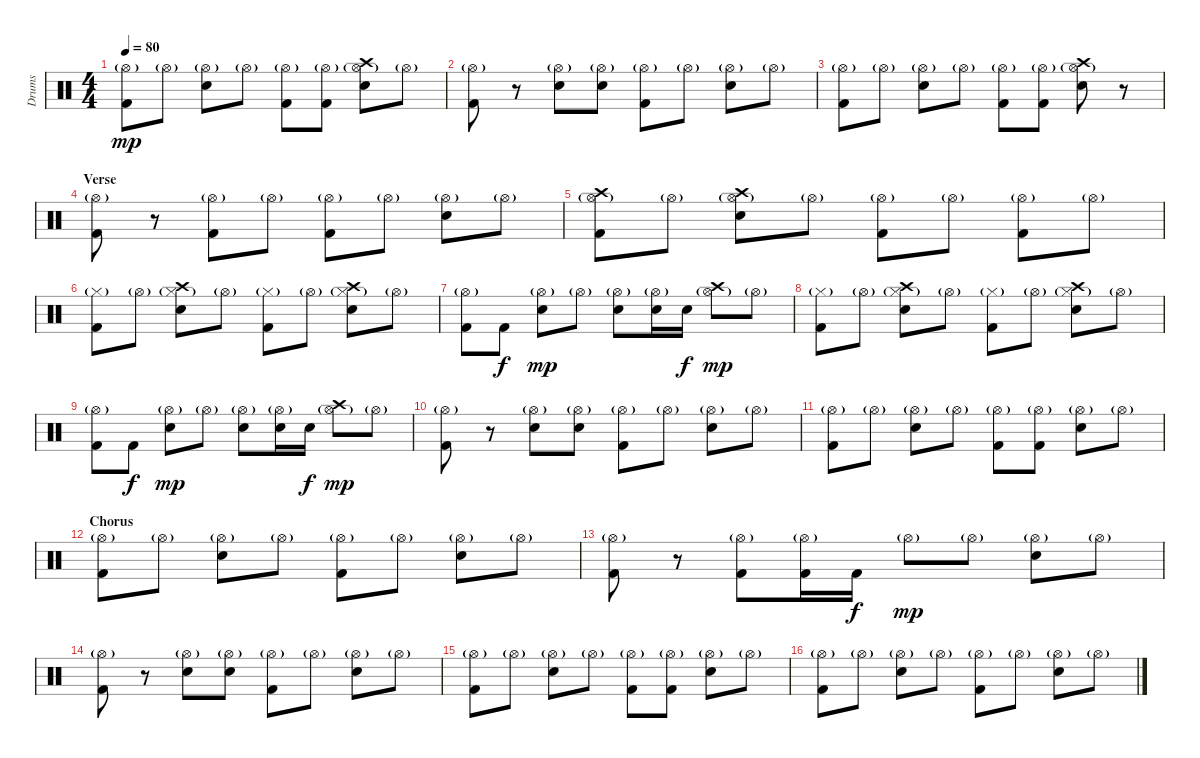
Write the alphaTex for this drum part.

\track ("Drums" "Drums") {instrument percussion}
\staff {score}
\articulation defaults
\ts (4 4)
\tempo 80
\clef neutral
\ks c
("Hi-Hat (open)"{g} "Kick (hit) 2").8{dy mp} "Hi-Hat (open)"{g}.8 ("Hi-Hat (open)"{g} "Snare (hit) 2").8 "Hi-Hat (open)"{g}.8 ("Hi-Hat (open)"{g} "Kick (hit) 2").8 ("Hi-Hat (open)"{g} "Kick (hit) 2").8 ("Hi-Hat (open)"{g} "Crash high (hit)" "Snare (hit) 2").8 "Hi-Hat (open)"{g}.8 |
("Hi-Hat (open)"{g} "Kick (hit) 2").8 r.8 ("Hi-Hat (open)"{g} "Snare (hit) 2").8 ("Hi-Hat (open)"{g} "Snare (hit) 2").8 ("Hi-Hat (open)"{g} "Kick (hit) 2").8 "Hi-Hat (open)"{g}.8 ("Hi-Hat (open)"{g} "Snare (hit) 2").8 "Hi-Hat (open)"{g}.8 |
("Hi-Hat (open)"{g} "Kick (hit) 2").8 "Hi-Hat (open)"{g}.8 ("Hi-Hat (open)"{g} "Snare (hit) 2").8 "Hi-Hat (open)"{g}.8 ("Hi-Hat (open)"{g} "Kick (hit) 2").8 ("Hi-Hat (open)"{g} "Kick (hit) 2").8 ("Hi-Hat (open)"{g} "Crash high (hit)" "Snare (hit) 2").8 r.8 |
\section ("" "Verse")
("Hi-Hat (open)"{g} "Kick (hit) 2").8 r.8 ("Hi-Hat (open)"{g} "Kick (hit) 2").8 "Hi-Hat (open)"{g}.8 ("Hi-Hat (open)"{g} "Kick (hit) 2").8 "Hi-Hat (open)"{g}.8 ("Hi-Hat (open)"{g} "Snare (hit) 2").8 "Hi-Hat (open)"{g}.8 |
("Hi-Hat (open)"{g} "Crash high (hit)" "Kick (hit) 2").8 "Hi-Hat (open)"{g}.8 ("Hi-Hat (open)"{g} "Crash high (hit)" "Snare (hit) 2").8 "Hi-Hat (open)"{g}.8 ("Hi-Hat (open)"{g} "Kick (hit) 2").8 "Hi-Hat (open)"{g}.8 ("Hi-Hat (open)"{g} "Kick (hit) 2").8 "Hi-Hat (open)"{g}.8 |
("Hi-Hat (closed)"{g} "Kick (hit) 2").8 "Hi-Hat (open)"{g}.8 ("Hi-Hat (closed)"{g} "Crash high (hit)" "Snare (hit) 2").8 "Hi-Hat (open)"{g}.8 ("Hi-Hat (closed)"{g} "Kick (hit) 2").8 "Hi-Hat (open)"{g}.8 ("Hi-Hat (closed)"{g} "Crash high (hit)" "Snare (hit) 2").8 "Hi-Hat (open)"{g}.8 |
("Hi-Hat (open)"{g} "Kick (hit) 2").8 "Kick (hit) 2".8{dy f} ("Hi-Hat (open)"{g} "Snare (hit) 2").8{dy mp} "Hi-Hat (open)"{g}.8 ("Hi-Hat (open)"{g} "Snare (hit) 2").8 ("Hi-Hat (open)"{g} "Snare (hit) 2").16 "Snare (hit) 2".16{dy f} ("Hi-Hat (open)"{g} "Crash high (hit)").8{dy mp} "Hi-Hat (open)"{g}.8 |
("Hi-Hat (closed)"{g} "Kick (hit) 2").8 "Hi-Hat (open)"{g}.8 ("Hi-Hat (closed)"{g} "Crash high (hit)" "Snare (hit) 2").8 "Hi-Hat (open)"{g}.8 ("Hi-Hat (closed)"{g} "Kick (hit) 2").8 "Hi-Hat (open)"{g}.8 ("Hi-Hat (closed)"{g} "Crash high (hit)" "Snare (hit) 2").8 "Hi-Hat (open)"{g}.8 |
("Hi-Hat (open)"{g} "Kick (hit) 2").8 "Kick (hit) 2".8{dy f} ("Hi-Hat (open)"{g} "Snare (hit) 2").8{dy mp} "Hi-Hat (open)"{g}.8 ("Hi-Hat (open)"{g} "Snare (hit) 2").8 ("Hi-Hat (open)"{g} "Snare (hit) 2").16 "Snare (hit) 2".16{dy f} ("Hi-Hat (open)"{g} "Crash high (hit)").8{dy mp} "Hi-Hat (open)"{g}.8 |
("Hi-Hat (open)"{g} "Kick (hit) 2").8 r.8 ("Hi-Hat (open)"{g} "Snare (hit) 2").8 ("Hi-Hat (open)"{g} "Snare (hit) 2").8 ("Hi-Hat (open)"{g} "Kick (hit) 2").8 "Hi-Hat (open)"{g}.8 ("Hi-Hat (open)"{g} "Snare (hit) 2").8 "Hi-Hat (open)"{g}.8 |
("Hi-Hat (open)"{g} "Kick (hit) 2").8 "Hi-Hat (open)"{g}.8 ("Hi-Hat (open)"{g} "Snare (hit) 2").8 "Hi-Hat (open)"{g}.8 ("Hi-Hat (open)"{g} "Kick (hit) 2").8 ("Hi-Hat (open)"{g} "Kick (hit) 2").8 ("Hi-Hat (open)"{g} "Snare (hit) 2").8 "Hi-Hat (open)"{g}.8 |
\section ("" "Chorus")
("Hi-Hat (open)"{g} "Kick (hit) 2").8 "Hi-Hat (open)"{g}.8 ("Hi-Hat (open)"{g} "Snare (hit) 2").8 "Hi-Hat (open)"{g}.8 ("Hi-Hat (open)"{g} "Kick (hit) 2").8 "Hi-Hat (open)"{g}.8 ("Hi-Hat (open)"{g} "Snare (hit) 2").8 "Hi-Hat (open)"{g}.8 |
("Hi-Hat (open)"{g} "Kick (hit) 2").8 r.8 ("Hi-Hat (open)"{g} "Kick (hit) 2").8 ("Hi-Hat (open)"{g} "Kick (hit) 2").16 "Kick (hit) 2".16{dy f} "Hi-Hat (open)"{g}.8{dy mp} "Hi-Hat (open)"{g}.8 ("Hi-Hat (open)"{g} "Snare (hit) 2").8 "Hi-Hat (open)"{g}.8 |
("Hi-Hat (open)"{g} "Kick (hit) 2").8 r.8 ("Hi-Hat (open)"{g} "Snare (hit) 2").8 ("Hi-Hat (open)"{g} "Snare (hit) 2").8 ("Hi-Hat (open)"{g} "Kick (hit) 2").8 "Hi-Hat (open)"{g}.8 ("Hi-Hat (open)"{g} "Snare (hit) 2").8 "Hi-Hat (open)"{g}.8 |
("Hi-Hat (open)"{g} "Kick (hit) 2").8 "Hi-Hat (open)"{g}.8 ("Hi-Hat (open)"{g} "Snare (hit) 2").8 "Hi-Hat (open)"{g}.8 ("Hi-Hat (open)"{g} "Kick (hit) 2").8 ("Hi-Hat (open)"{g} "Kick (hit) 2").8 ("Hi-Hat (open)"{g} "Snare (hit) 2").8 "Hi-Hat (open)"{g}.8 |
("Hi-Hat (open)"{g} "Kick (hit) 2").8 "Hi-Hat (open)"{g}.8 ("Hi-Hat (open)"{g} "Snare (hit) 2").8 "Hi-Hat (open)"{g}.8 ("Hi-Hat (open)"{g} "Kick (hit) 2").8 "Hi-Hat (open)"{g}.8 ("Hi-Hat (open)"{g} "Snare (hit) 2").8 "Hi-Hat (open)"{g}.8
